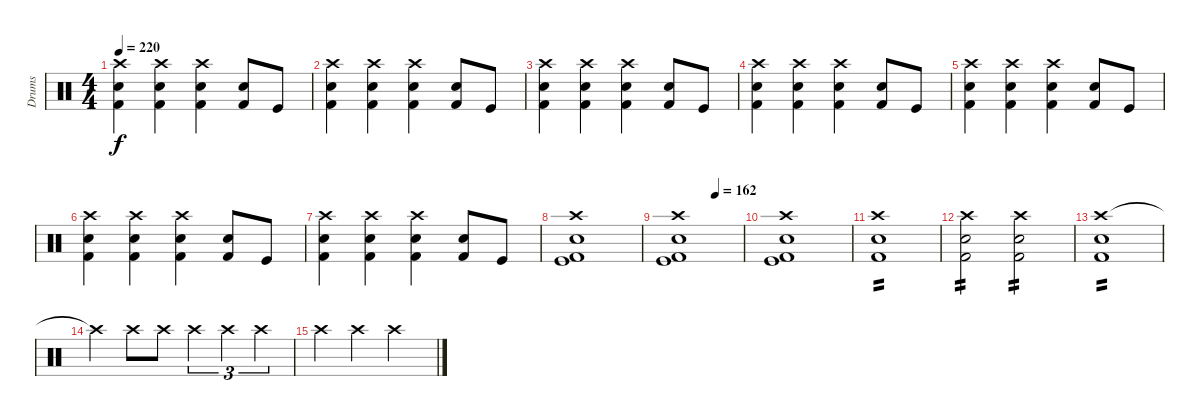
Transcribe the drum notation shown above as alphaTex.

\track ("Drums" "Drums") {instrument percussion}
\staff {score}
\articulation defaults
\ts (4 4)
\tempo 220
\clef neutral
\ks c
("Crash high (hit)" "Electric Snare (hit)" "Kick (hit) 2").4{dy f} ("Crash high (hit)" "Electric Snare (hit)" "Kick (hit) 2").4 ("Crash high (hit)" "Electric Snare (hit)" "Kick (hit) 2").4 ("Electric Snare (hit)" "Kick (hit) 2").8 "Kick (hit)".8 |
("Crash high (hit)" "Electric Snare (hit)" "Kick (hit) 2").4 ("Crash high (hit)" "Electric Snare (hit)" "Kick (hit) 2").4 ("Crash high (hit)" "Electric Snare (hit)" "Kick (hit) 2").4 ("Electric Snare (hit)" "Kick (hit) 2").8 "Kick (hit)".8 |
("Crash high (hit)" "Electric Snare (hit)" "Kick (hit) 2").4 ("Crash high (hit)" "Electric Snare (hit)" "Kick (hit) 2").4 ("Crash high (hit)" "Electric Snare (hit)" "Kick (hit) 2").4 ("Electric Snare (hit)" "Kick (hit) 2").8 "Kick (hit)".8 |
("Crash high (hit)" "Electric Snare (hit)" "Kick (hit) 2").4 ("Crash high (hit)" "Electric Snare (hit)" "Kick (hit) 2").4 ("Crash high (hit)" "Electric Snare (hit)" "Kick (hit) 2").4 ("Electric Snare (hit)" "Kick (hit) 2").8 "Kick (hit)".8 |
("Crash high (hit)" "Electric Snare (hit)" "Kick (hit) 2").4 ("Crash high (hit)" "Electric Snare (hit)" "Kick (hit) 2").4 ("Crash high (hit)" "Electric Snare (hit)" "Kick (hit) 2").4 ("Electric Snare (hit)" "Kick (hit) 2").8 "Kick (hit)".8 |
("Crash high (hit)" "Electric Snare (hit)" "Kick (hit) 2").4 ("Crash high (hit)" "Electric Snare (hit)" "Kick (hit) 2").4 ("Crash high (hit)" "Electric Snare (hit)" "Kick (hit) 2").4 ("Electric Snare (hit)" "Kick (hit) 2").8 "Kick (hit)".8 |
("Crash high (hit)" "Electric Snare (hit)" "Kick (hit) 2").4 ("Crash high (hit)" "Electric Snare (hit)" "Kick (hit) 2").4 ("Crash high (hit)" "Electric Snare (hit)" "Kick (hit) 2").4 ("Electric Snare (hit)" "Kick (hit) 2").8 "Kick (hit)".8 |
("Crash high (hit)" "Electric Snare (hit)" "Kick (hit)" "Kick (hit) 2").1 |
\tempo (162 0.625)
("Crash high (hit)" "Electric Snare (hit)" "Kick (hit)" "Kick (hit) 2").1 |
("Crash high (hit)" "Electric Snare (hit)" "Kick (hit)" "Kick (hit) 2").1 |
("Crash high (hit)" "Electric Snare (hit)" "Kick (hit) 2").1{tp 2} |
("Crash high (hit)" "Electric Snare (hit)" "Kick (hit) 2").2{tp 2} ("Crash high (hit)" "Electric Snare (hit)" "Kick (hit) 2").2{tp 2} |
("Crash high (hit)" "Electric Snare (hit)" "Kick (hit) 2").1{tp 2} |
"Crash high (hit)"{t}.4 "Crash high (hit)".8 "Crash high (hit)".8 "Crash high (hit)".4{tu (3 2)} "Crash high (hit)".4{tu (3 2)} "Crash high (hit)".4{tu (3 2)} |
"Crash high (hit)".4 "Crash high (hit)".4 "Crash high (hit)".2
